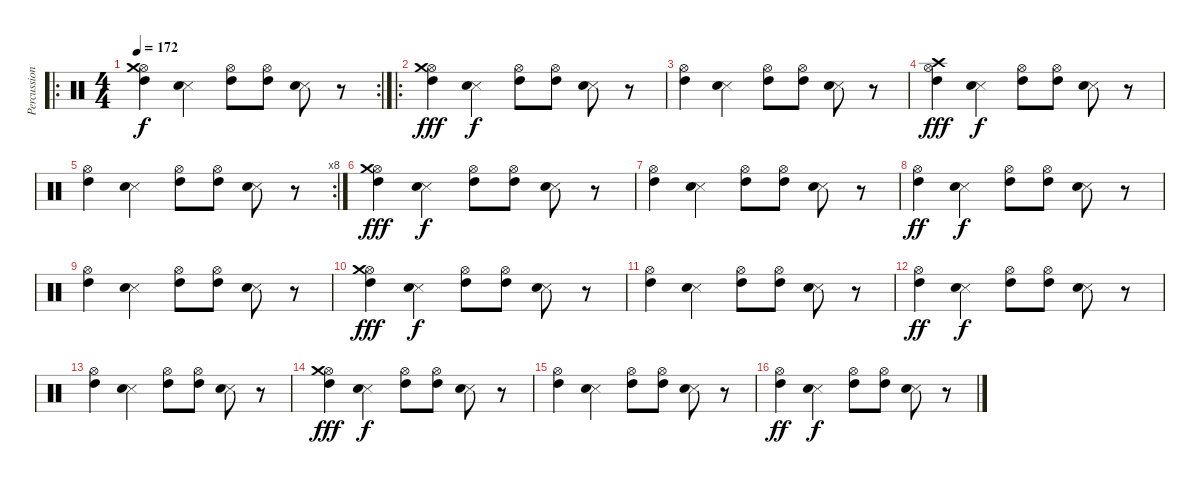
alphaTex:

\track ("Percussion" "Percussion") {instrument percussion}
\staff {score}
\articulation defaults
\ro
\rc 2
\ts (4 4)
\tempo 172
\clef neutral
\ks c
("Hi-Hat (open)" "High Tom (hit)" "Crash medium (hit)").4{dy f} ("Snare (side stick) 3" "Electric Snare (hit)").4 ("Hi-Hat (open)" "High Tom (hit)").8 ("Hi-Hat (open)" "High Tom (hit)").8 ("Snare (side stick) 3" "Electric Snare (hit)").8 r.8 |
\ro
("Hi-Hat (open)" "High Tom (hit)" "Crash medium (hit)").4{dy fff} ("Snare (side stick) 3" "Electric Snare (hit)").4{dy f} ("Hi-Hat (open)" "High Tom (hit)").8 ("Hi-Hat (open)" "High Tom (hit)").8 ("Snare (side stick) 3" "Electric Snare (hit)").8 r.8 |
("Hi-Hat (open)" "High Tom (hit)").4 ("Snare (side stick) 3" "Electric Snare (hit)").4 ("Hi-Hat (open)" "High Tom (hit)").8 ("Hi-Hat (open)" "High Tom (hit)").8 ("Snare (side stick) 3" "Electric Snare (hit)").8 r.8 |
("Hi-Hat (open)" "High Tom (hit)" "Crash high (hit)").4{dy fff} ("Snare (side stick) 3" "Electric Snare (hit)").4{dy f} ("Hi-Hat (open)" "High Tom (hit)").8 ("Hi-Hat (open)" "High Tom (hit)").8 ("Snare (side stick) 3" "Electric Snare (hit)").8 r.8 |
\rc 8
("Hi-Hat (open)" "High Tom (hit)").4 ("Snare (side stick) 3" "Electric Snare (hit)").4 ("Hi-Hat (open)" "High Tom (hit)").8 ("Hi-Hat (open)" "High Tom (hit)").8 ("Snare (side stick) 3" "Electric Snare (hit)").8 r.8 |
("Hi-Hat (open)" "High Tom (hit)" "Crash medium (hit)").4{dy fff} ("Snare (side stick) 3" "Electric Snare (hit)").4{dy f} ("Hi-Hat (open)" "High Tom (hit)").8 ("Hi-Hat (open)" "High Tom (hit)").8 ("Snare (side stick) 3" "Electric Snare (hit)").8 r.8 |
("Hi-Hat (open)" "High Tom (hit)").4 ("Snare (side stick) 3" "Electric Snare (hit)").4 ("Hi-Hat (open)" "High Tom (hit)").8 ("Hi-Hat (open)" "High Tom (hit)").8 ("Snare (side stick) 3" "Electric Snare (hit)").8 r.8 |
("Hi-Hat (open)" "High Tom (hit)").4{dy ff} ("Snare (side stick) 3" "Electric Snare (hit)").4{dy f} ("Hi-Hat (open)" "High Tom (hit)").8 ("Hi-Hat (open)" "High Tom (hit)").8 ("Snare (side stick) 3" "Electric Snare (hit)").8 r.8 |
("Hi-Hat (open)" "High Tom (hit)").4 ("Snare (side stick) 3" "Electric Snare (hit)").4 ("Hi-Hat (open)" "High Tom (hit)").8 ("Hi-Hat (open)" "High Tom (hit)").8 ("Snare (side stick) 3" "Electric Snare (hit)").8 r.8 |
("Hi-Hat (open)" "High Tom (hit)" "Crash medium (hit)").4{dy fff} ("Snare (side stick) 3" "Electric Snare (hit)").4{dy f} ("Hi-Hat (open)" "High Tom (hit)").8 ("Hi-Hat (open)" "High Tom (hit)").8 ("Snare (side stick) 3" "Electric Snare (hit)").8 r.8 |
("Hi-Hat (open)" "High Tom (hit)").4 ("Snare (side stick) 3" "Electric Snare (hit)").4 ("Hi-Hat (open)" "High Tom (hit)").8 ("Hi-Hat (open)" "High Tom (hit)").8 ("Snare (side stick) 3" "Electric Snare (hit)").8 r.8 |
("Hi-Hat (open)" "High Tom (hit)").4{dy ff} ("Snare (side stick) 3" "Electric Snare (hit)").4{dy f} ("Hi-Hat (open)" "High Tom (hit)").8 ("Hi-Hat (open)" "High Tom (hit)").8 ("Snare (side stick) 3" "Electric Snare (hit)").8 r.8 |
("Hi-Hat (open)" "High Tom (hit)").4 ("Snare (side stick) 3" "Electric Snare (hit)").4 ("Hi-Hat (open)" "High Tom (hit)").8 ("Hi-Hat (open)" "High Tom (hit)").8 ("Snare (side stick) 3" "Electric Snare (hit)").8 r.8 |
("Hi-Hat (open)" "High Tom (hit)" "Crash medium (hit)").4{dy fff} ("Snare (side stick) 3" "Electric Snare (hit)").4{dy f} ("Hi-Hat (open)" "High Tom (hit)").8 ("Hi-Hat (open)" "High Tom (hit)").8 ("Snare (side stick) 3" "Electric Snare (hit)").8 r.8 |
("Hi-Hat (open)" "High Tom (hit)").4 ("Snare (side stick) 3" "Electric Snare (hit)").4 ("Hi-Hat (open)" "High Tom (hit)").8 ("Hi-Hat (open)" "High Tom (hit)").8 ("Snare (side stick) 3" "Electric Snare (hit)").8 r.8 |
("Hi-Hat (open)" "High Tom (hit)").4{dy ff} ("Snare (side stick) 3" "Electric Snare (hit)").4{dy f} ("Hi-Hat (open)" "High Tom (hit)").8 ("Hi-Hat (open)" "High Tom (hit)").8 ("Snare (side stick) 3" "Electric Snare (hit)").8 r.8
